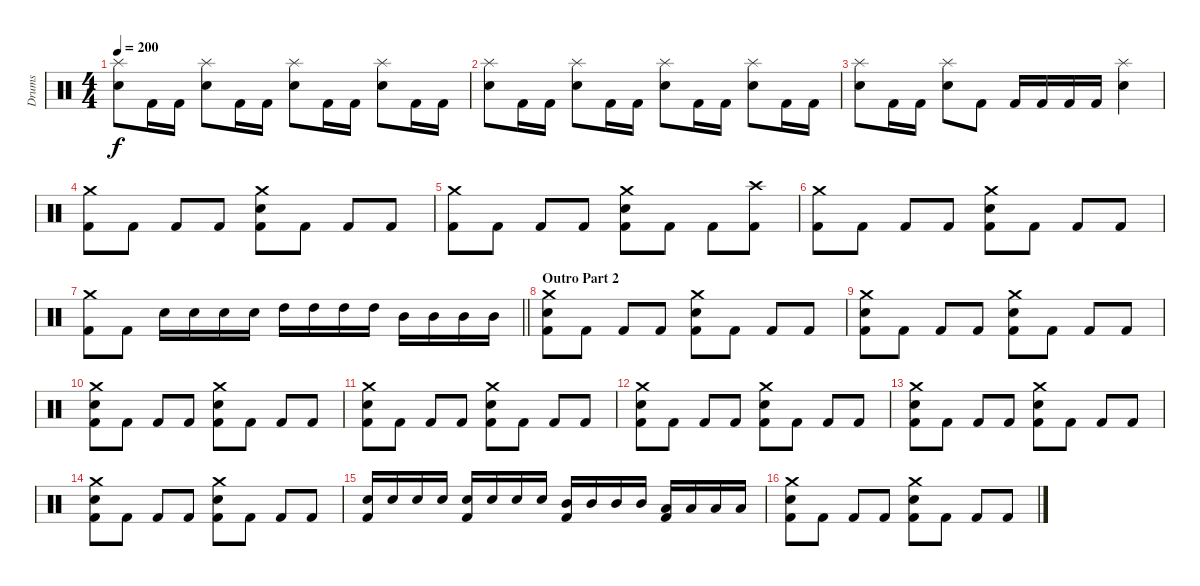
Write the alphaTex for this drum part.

\track ("Drums" "Drums") {instrument percussion}
\staff {score}
\articulation defaults
\ts (4 4)
\tempo 200
\clef neutral
\ks c
("Splash (hit)" "Electric Snare (hit)").8{dy f} "Kick (hit) 2".16 "Kick (hit) 2".16 ("Splash (hit)" "Electric Snare (hit)").8 "Kick (hit) 2".16 "Kick (hit) 2".16 ("Splash (hit)" "Electric Snare (hit)").8 "Kick (hit) 2".16 "Kick (hit) 2".16 ("Splash (hit)" "Electric Snare (hit)").8 "Kick (hit) 2".16 "Kick (hit) 2".16 |
("Splash (hit)" "Electric Snare (hit)").8 "Kick (hit) 2".16 "Kick (hit) 2".16 ("Splash (hit)" "Electric Snare (hit)").8 "Kick (hit) 2".16 "Kick (hit) 2".16 ("Splash (hit)" "Electric Snare (hit)").8 "Kick (hit) 2".16 "Kick (hit) 2".16 ("Splash (hit)" "Electric Snare (hit)").8 "Kick (hit) 2".16 "Kick (hit) 2".16 |
("Splash (hit)" "Electric Snare (hit)").8 "Kick (hit) 2".16 "Kick (hit) 2".16 ("Splash (hit)" "Electric Snare (hit)").8 "Kick (hit) 2".8 "Kick (hit) 2".16 "Kick (hit) 2".16 "Kick (hit) 2".16 "Kick (hit) 2".16 ("Splash (hit)" "Electric Snare (hit)").4 |
("Crash medium (hit)" "Kick (hit) 2").8 "Kick (hit) 2".8 "Kick (hit) 2".8 "Kick (hit) 2".8 ("Crash medium (hit)" "Electric Snare (hit)" "Kick (hit) 2").8 "Kick (hit) 2".8 "Kick (hit) 2".8 "Kick (hit) 2".8 |
("Crash medium (hit)" "Kick (hit) 2").8 "Kick (hit) 2".8 "Kick (hit) 2".8 "Kick (hit) 2".8 ("Crash medium (hit)" "Electric Snare (hit)" "Kick (hit) 2").8 "Kick (hit) 2".8 "Kick (hit) 2".8 ("Crash high (hit)" "Kick (hit) 2").8 |
("Crash medium (hit)" "Kick (hit) 2").8 "Kick (hit) 2".8 "Kick (hit) 2".8 "Kick (hit) 2".8 ("Crash medium (hit)" "Electric Snare (hit)" "Kick (hit) 2").8 "Kick (hit) 2".8 "Kick (hit) 2".8 "Kick (hit) 2".8 |
\barLineRight lightlight
("Crash medium (hit)" "Kick (hit) 2").8 "Kick (hit) 2".8 "Electric Snare (hit)".16 "Electric Snare (hit)".16 "Electric Snare (hit)".16 "Electric Snare (hit)".16 "High Tom (hit)".16 "High Tom (hit)".16 "High Tom (hit)".16 "High Tom (hit)".16 "Mid Tom (hit)".16 "Mid Tom (hit)".16 "Mid Tom (hit)".16 "Mid Tom (hit)".16 |
\section ("" "Outro Part 2")
("Crash medium (hit)" "Electric Snare (hit)" "Kick (hit) 2").8 "Kick (hit) 2".8 "Kick (hit) 2".8 "Kick (hit) 2".8 ("Crash medium (hit)" "Electric Snare (hit)" "Kick (hit) 2").8 "Kick (hit) 2".8 "Kick (hit) 2".8 "Kick (hit) 2".8 |
("Crash medium (hit)" "Electric Snare (hit)" "Kick (hit) 2").8 "Kick (hit) 2".8 "Kick (hit) 2".8 "Kick (hit) 2".8 ("Crash medium (hit)" "Electric Snare (hit)" "Kick (hit) 2").8 "Kick (hit) 2".8 "Kick (hit) 2".8 "Kick (hit) 2".8 |
("Crash medium (hit)" "Electric Snare (hit)" "Kick (hit) 2").8 "Kick (hit) 2".8 "Kick (hit) 2".8 "Kick (hit) 2".8 ("Crash medium (hit)" "Electric Snare (hit)" "Kick (hit) 2").8 "Kick (hit) 2".8 "Kick (hit) 2".8 "Kick (hit) 2".8 |
("Crash medium (hit)" "Electric Snare (hit)" "Kick (hit) 2").8 "Kick (hit) 2".8 "Kick (hit) 2".8 "Kick (hit) 2".8 ("Crash medium (hit)" "Electric Snare (hit)" "Kick (hit) 2").8 "Kick (hit) 2".8 "Kick (hit) 2".8 "Kick (hit) 2".8 |
("Crash medium (hit)" "Electric Snare (hit)" "Kick (hit) 2").8 "Kick (hit) 2".8 "Kick (hit) 2".8 "Kick (hit) 2".8 ("Crash medium (hit)" "Electric Snare (hit)" "Kick (hit) 2").8 "Kick (hit) 2".8 "Kick (hit) 2".8 "Kick (hit) 2".8 |
("Crash medium (hit)" "Electric Snare (hit)" "Kick (hit) 2").8 "Kick (hit) 2".8 "Kick (hit) 2".8 "Kick (hit) 2".8 ("Crash medium (hit)" "Electric Snare (hit)" "Kick (hit) 2").8 "Kick (hit) 2".8 "Kick (hit) 2".8 "Kick (hit) 2".8 |
("Crash medium (hit)" "Electric Snare (hit)" "Kick (hit) 2").8 "Kick (hit) 2".8 "Kick (hit) 2".8 "Kick (hit) 2".8 ("Crash medium (hit)" "Electric Snare (hit)" "Kick (hit) 2").8 "Kick (hit) 2".8 "Kick (hit) 2".8 "Kick (hit) 2".8 |
("Electric Snare (hit)" "Kick (hit) 2").16 "Electric Snare (hit)".16 "Electric Snare (hit)".16 "Electric Snare (hit)".16 ("Electric Snare (hit)" "Kick (hit) 2").16 "Electric Snare (hit)".16 "Electric Snare (hit)".16 "Electric Snare (hit)".16 ("Mid Tom (hit)" "Kick (hit) 2").16 "Mid Tom (hit)".16 "Mid Tom (hit)".16 "Mid Tom (hit)".16 ("Low Tom (hit)" "Kick (hit) 2").16 "Low Tom (hit)".16 "Low Tom (hit)".16 "Low Tom (hit)".16 |
("Crash medium (hit)" "Electric Snare (hit)" "Kick (hit) 2").8 "Kick (hit) 2".8 "Kick (hit) 2".8 "Kick (hit) 2".8 ("Crash medium (hit)" "Electric Snare (hit)" "Kick (hit) 2").8 "Kick (hit) 2".8 "Kick (hit) 2".8 "Kick (hit) 2".8
